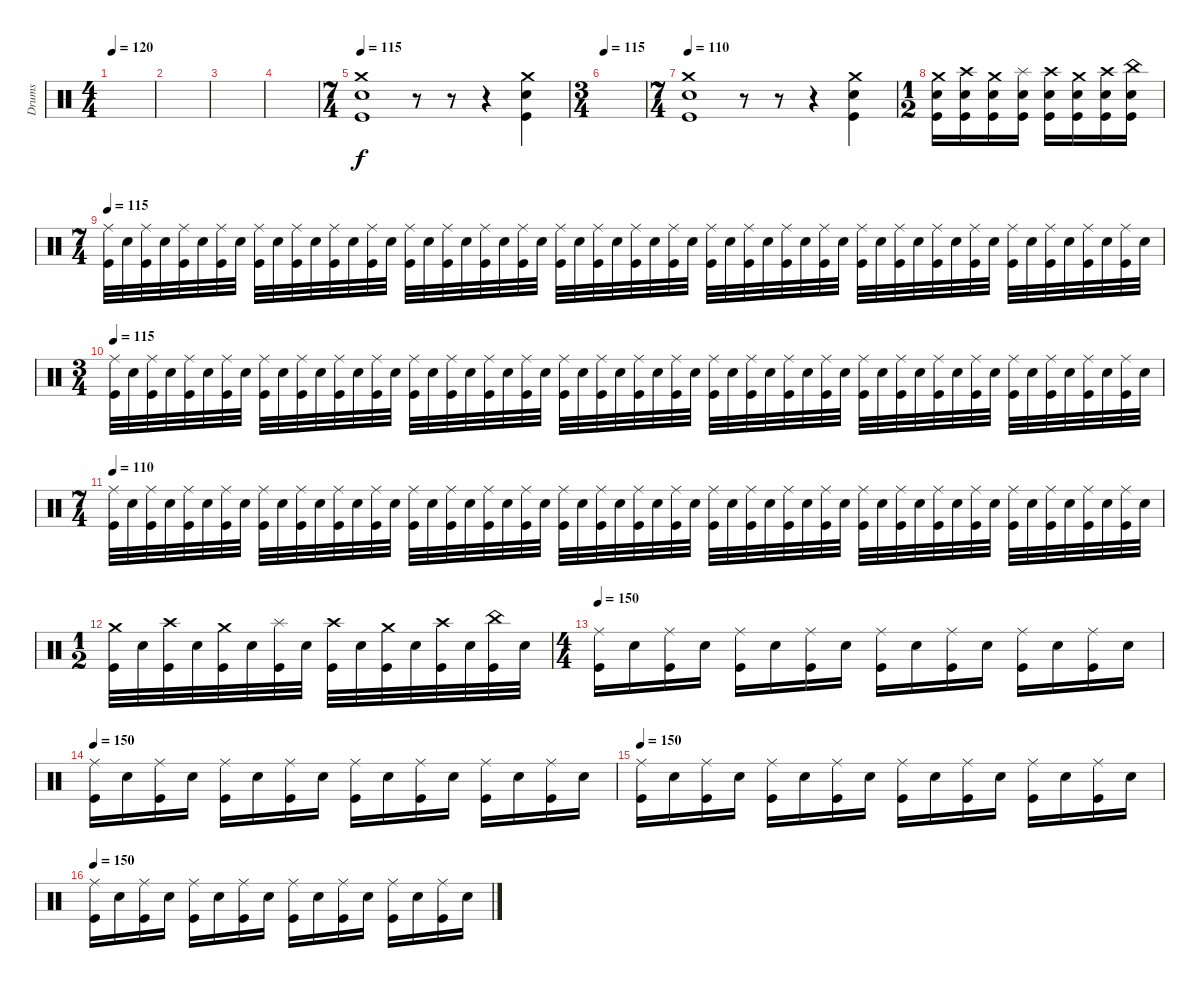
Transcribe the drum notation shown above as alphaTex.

\track ("Drums" "Drums") {instrument percussion}
\staff {score}
\articulation defaults
\ts (4 4)
\tempo 120
\clef neutral
\ks c
|
|
|
|
\ts (7 4)
\tempo 115
("Crash medium (hit)" "Electric Snare (hit)" "Kick (hit)").1 r.8 r.8 r.4 ("Crash medium (hit)" "Electric Snare (hit)" "Kick (hit)").4 |
\ts (3 4)
\tempo 115
|
\ts (7 4)
\tempo 110
("Crash medium (hit)" "Electric Snare (hit)" "Kick (hit)").1 r.8 r.8 r.4 ("Crash medium (hit)" "Electric Snare (hit)" "Kick (hit)").4 |
\ts (1 2)
("Crash medium (hit)" "Electric Snare (hit)" "Kick (hit)").16 ("Crash high (hit)" "Electric Snare (hit)" "Kick (hit)").16 ("Crash medium (hit)" "Electric Snare (hit)" "Kick (hit)").16 ("Splash (hit)" "Electric Snare (hit)" "Kick (hit)").16 ("Crash high (hit)" "Electric Snare (hit)" "Kick (hit)").16 ("Crash medium (hit)" "Electric Snare (hit)" "Kick (hit)").16 ("Crash high (hit)" "Electric Snare (hit)" "Kick (hit)").16 ("China (hit)" "Electric Snare (hit)" "Kick (hit)").16 |
\ts (7 4)
\tempo 115
("Ride (middle)" "Kick (hit)").32 "Electric Snare (hit)".32 ("Ride (middle)" "Kick (hit)").32 "Electric Snare (hit)".32 ("Ride (middle)" "Kick (hit)").32 "Electric Snare (hit)".32 ("Ride (middle)" "Kick (hit)").32 "Electric Snare (hit)".32 ("Ride (middle)" "Kick (hit)").32 "Electric Snare (hit)".32 ("Ride (middle)" "Kick (hit)").32 "Electric Snare (hit)".32 ("Ride (middle)" "Kick (hit)").32 "Electric Snare (hit)".32 ("Ride (middle)" "Kick (hit)").32 "Electric Snare (hit)".32 ("Ride (middle)" "Kick (hit)").32 "Electric Snare (hit)".32 ("Ride (middle)" "Kick (hit)").32 "Electric Snare (hit)".32 ("Ride (middle)" "Kick (hit)").32 "Electric Snare (hit)".32 ("Ride (middle)" "Kick (hit)").32 "Electric Snare (hit)".32 ("Ride (middle)" "Kick (hit)").32 "Electric Snare (hit)".32 ("Ride (middle)" "Kick (hit)").32 "Electric Snare (hit)".32 ("Ride (middle)" "Kick (hit)").32 "Electric Snare (hit)".32 ("Ride (middle)" "Kick (hit)").32 "Electric Snare (hit)".32 ("Ride (middle)" "Kick (hit)").32 "Electric Snare (hit)".32 ("Ride (middle)" "Kick (hit)").32 "Electric Snare (hit)".32 ("Ride (middle)" "Kick (hit)").32 "Electric Snare (hit)".32 ("Ride (middle)" "Kick (hit)").32 "Electric Snare (hit)".32 ("Ride (middle)" "Kick (hit)").32 "Electric Snare (hit)".32 ("Ride (middle)" "Kick (hit)").32 "Electric Snare (hit)".32 ("Ride (middle)" "Kick (hit)").32 "Electric Snare (hit)".32 ("Ride (middle)" "Kick (hit)").32 "Electric Snare (hit)".32 ("Ride (middle)" "Kick (hit)").32 "Electric Snare (hit)".32 ("Ride (middle)" "Kick (hit)").32 "Electric Snare (hit)".32 ("Ride (middle)" "Kick (hit)").32 "Electric Snare (hit)".32 ("Ride (middle)" "Kick (hit)").32 "Electric Snare (hit)".32 |
\ts (3 4)
\tempo 115
("Ride (middle)" "Kick (hit)").32 "Electric Snare (hit)".32 ("Ride (middle)" "Kick (hit)").32 "Electric Snare (hit)".32 ("Ride (middle)" "Kick (hit)").32 "Electric Snare (hit)".32 ("Ride (middle)" "Kick (hit)").32 "Electric Snare (hit)".32 ("Ride (middle)" "Kick (hit)").32 "Electric Snare (hit)".32 ("Ride (middle)" "Kick (hit)").32 "Electric Snare (hit)".32 ("Ride (middle)" "Kick (hit)").32 "Electric Snare (hit)".32 ("Ride (middle)" "Kick (hit)").32 "Electric Snare (hit)".32 ("Ride (middle)" "Kick (hit)").32 "Electric Snare (hit)".32 ("Ride (middle)" "Kick (hit)").32 "Electric Snare (hit)".32 ("Ride (middle)" "Kick (hit)").32 "Electric Snare (hit)".32 ("Ride (middle)" "Kick (hit)").32 "Electric Snare (hit)".32 ("Ride (middle)" "Kick (hit)").32 "Electric Snare (hit)".32 ("Ride (middle)" "Kick (hit)").32 "Electric Snare (hit)".32 ("Ride (middle)" "Kick (hit)").32 "Electric Snare (hit)".32 ("Ride (middle)" "Kick (hit)").32 "Electric Snare (hit)".32 ("Ride (middle)" "Kick (hit)").32 "Electric Snare (hit)".32 ("Ride (middle)" "Kick (hit)").32 "Electric Snare (hit)".32 ("Ride (middle)" "Kick (hit)").32 "Electric Snare (hit)".32 ("Ride (middle)" "Kick (hit)").32 "Electric Snare (hit)".32 ("Ride (middle)" "Kick (hit)").32 "Electric Snare (hit)".32 ("Ride (middle)" "Kick (hit)").32 "Electric Snare (hit)".32 ("Ride (middle)" "Kick (hit)").32 "Electric Snare (hit)".32 ("Ride (middle)" "Kick (hit)").32 "Electric Snare (hit)".32 ("Ride (middle)" "Kick (hit)").32 "Electric Snare (hit)".32 ("Ride (middle)" "Kick (hit)").32 "Electric Snare (hit)".32 ("Ride (middle)" "Kick (hit)").32 "Electric Snare (hit)".32 ("Ride (middle)" "Kick (hit)").32 "Electric Snare (hit)".32 |
\ts (7 4)
\tempo 110
("Ride (middle)" "Kick (hit)").32 "Electric Snare (hit)".32 ("Ride (middle)" "Kick (hit)").32 "Electric Snare (hit)".32 ("Ride (middle)" "Kick (hit)").32 "Electric Snare (hit)".32 ("Ride (middle)" "Kick (hit)").32 "Electric Snare (hit)".32 ("Ride (middle)" "Kick (hit)").32 "Electric Snare (hit)".32 ("Ride (middle)" "Kick (hit)").32 "Electric Snare (hit)".32 ("Ride (middle)" "Kick (hit)").32 "Electric Snare (hit)".32 ("Ride (middle)" "Kick (hit)").32 "Electric Snare (hit)".32 ("Ride (middle)" "Kick (hit)").32 "Electric Snare (hit)".32 ("Ride (middle)" "Kick (hit)").32 "Electric Snare (hit)".32 ("Ride (middle)" "Kick (hit)").32 "Electric Snare (hit)".32 ("Ride (middle)" "Kick (hit)").32 "Electric Snare (hit)".32 ("Ride (middle)" "Kick (hit)").32 "Electric Snare (hit)".32 ("Ride (middle)" "Kick (hit)").32 "Electric Snare (hit)".32 ("Ride (middle)" "Kick (hit)").32 "Electric Snare (hit)".32 ("Ride (middle)" "Kick (hit)").32 "Electric Snare (hit)".32 ("Ride (middle)" "Kick (hit)").32 "Electric Snare (hit)".32 ("Ride (middle)" "Kick (hit)").32 "Electric Snare (hit)".32 ("Ride (middle)" "Kick (hit)").32 "Electric Snare (hit)".32 ("Ride (middle)" "Kick (hit)").32 "Electric Snare (hit)".32 ("Ride (middle)" "Kick (hit)").32 "Electric Snare (hit)".32 ("Ride (middle)" "Kick (hit)").32 "Electric Snare (hit)".32 ("Ride (middle)" "Kick (hit)").32 "Electric Snare (hit)".32 ("Ride (middle)" "Kick (hit)").32 "Electric Snare (hit)".32 ("Ride (middle)" "Kick (hit)").32 "Electric Snare (hit)".32 ("Ride (middle)" "Kick (hit)").32 "Electric Snare (hit)".32 ("Ride (middle)" "Kick (hit)").32 "Electric Snare (hit)".32 ("Ride (middle)" "Kick (hit)").32 "Electric Snare (hit)".32 |
\ts (1 2)
("Crash medium (hit)" "Kick (hit)").32 "Electric Snare (hit)".32 ("Crash high (hit)" "Kick (hit)").32 "Electric Snare (hit)".32 ("Crash medium (hit)" "Kick (hit)").32 "Electric Snare (hit)".32 ("Splash (hit)" "Kick (hit)").32 "Electric Snare (hit)".32 ("Crash high (hit)" "Kick (hit)").32 "Electric Snare (hit)".32 ("Crash medium (hit)" "Kick (hit)").32 "Electric Snare (hit)".32 ("Crash high (hit)" "Kick (hit)").32 "Electric Snare (hit)".32 ("China (hit)" "Kick (hit)").32 "Electric Snare (hit)".32 |
\ts (4 4)
\tempo 150
("Ride (middle)" "Kick (hit)").16 "Electric Snare (hit)".16 ("Ride (middle)" "Kick (hit)").16 "Electric Snare (hit)".16 ("Ride (middle)" "Kick (hit)").16 "Electric Snare (hit)".16 ("Ride (middle)" "Kick (hit)").16 "Electric Snare (hit)".16 ("Ride (middle)" "Kick (hit)").16 "Electric Snare (hit)".16 ("Ride (middle)" "Kick (hit)").16 "Electric Snare (hit)".16 ("Ride (middle)" "Kick (hit)").16 "Electric Snare (hit)".16 ("Ride (middle)" "Kick (hit)").16 "Electric Snare (hit)".16 |
\tempo 150
("Ride (middle)" "Kick (hit)").16 "Electric Snare (hit)".16 ("Ride (middle)" "Kick (hit)").16 "Electric Snare (hit)".16 ("Ride (middle)" "Kick (hit)").16 "Electric Snare (hit)".16 ("Ride (middle)" "Kick (hit)").16 "Electric Snare (hit)".16 ("Ride (middle)" "Kick (hit)").16 "Electric Snare (hit)".16 ("Ride (middle)" "Kick (hit)").16 "Electric Snare (hit)".16 ("Ride (middle)" "Kick (hit)").16 "Electric Snare (hit)".16 ("Ride (middle)" "Kick (hit)").16 "Electric Snare (hit)".16 |
\tempo 150
("Ride (middle)" "Kick (hit)").16 "Electric Snare (hit)".16 ("Ride (middle)" "Kick (hit)").16 "Electric Snare (hit)".16 ("Ride (middle)" "Kick (hit)").16 "Electric Snare (hit)".16 ("Ride (middle)" "Kick (hit)").16 "Electric Snare (hit)".16 ("Ride (middle)" "Kick (hit)").16 "Electric Snare (hit)".16 ("Ride (middle)" "Kick (hit)").16 "Electric Snare (hit)".16 ("Ride (middle)" "Kick (hit)").16 "Electric Snare (hit)".16 ("Ride (middle)" "Kick (hit)").16 "Electric Snare (hit)".16 |
\tempo 150
("Ride (middle)" "Kick (hit)").16 "Electric Snare (hit)".16 ("Ride (middle)" "Kick (hit)").16 "Electric Snare (hit)".16 ("Ride (middle)" "Kick (hit)").16 "Electric Snare (hit)".16 ("Ride (middle)" "Kick (hit)").16 "Electric Snare (hit)".16 ("Ride (middle)" "Kick (hit)").16 "Electric Snare (hit)".16 ("Ride (middle)" "Kick (hit)").16 "Electric Snare (hit)".16 ("Ride (middle)" "Kick (hit)").16 "Electric Snare (hit)".16 ("Ride (middle)" "Kick (hit)").16 "Electric Snare (hit)".16
